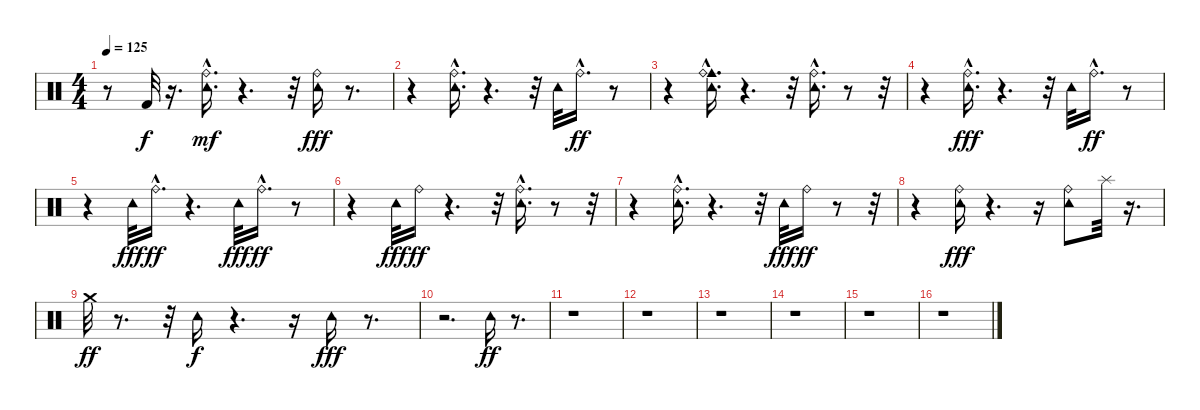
\track "" {instrument percussion}
\staff {score}
\articulation defaults
\ts (4 4)
\tempo 125
\clef neutral
\ks c
r.8{dy fff} "Kick (hit) 2".32{dy f} r.16{d} ("Ride (bell)"{hac} "Tambourine (hit)").16{d dy mf} r.4{d} r.32 ("Tambourine (hit)" "Ride (bell)").16{dy fff} r.8{d} |
r.4 ("Ride (bell)"{hac} "Tambourine (hit)").16{d} r.4{d} r.32 "Tambourine (hit)".32 "Ride (bell)"{hac}.16{d dy ff} r.8 |
r.4 ("Tambourine (hit)" "Cowbell medium (hit)" "Ride (bell)"{hac}).16{d} r.4{d} r.32 ("Tambourine (hit)" "Ride (bell)"{hac}).16{d} r.8 r.32 |
r.4 ("Tambourine (hit)" "Ride (bell)"{hac}).16{d dy fff} r.4{d} r.32 "Tambourine (hit)".32 "Ride (bell)"{hac}.16{d dy ff} r.8 |
r.4 "Tambourine (hit)".32{dy fff} "Ride (bell)"{hac}.16{d dy ff} r.4{d} "Tambourine (hit)".32{dy fff} "Ride (bell)"{hac}.16{d dy ff} r.8 |
r.4 "Tambourine (hit)".32{dy fff} "Ride (bell)".16{dy ff} r.4{d} r.32 ("Tambourine (hit)" "Ride (bell)"{hac}).16{d} r.8 r.32 |
r.4 ("Tambourine (hit)" "Ride (bell)"{hac}).16{d} r.4{d} r.32 "Tambourine (hit)".32{dy fff} "Ride (bell)".16{dy ff} r.8 r.32 |
r.4 ("Ride (bell)" "Tambourine (hit)").16{dy fff} r.4{d} r.16 ("Tambourine (hit)" "Ride (bell)").8 "Splash (hit)".32 r.16{d} |
"Crash medium (hit)".32{dy ff} r.8{d} r.32 "Tambourine (hit)".16{dy f} r.4{d} r.16 "Tambourine (hit)".16{dy fff} r.8{d} |
r.2{d} "Tambourine (hit)".16{dy ff} r.8{d} |
r.1 |
r.1 |
r.1 |
r.1 |
r.1 |
r.1
